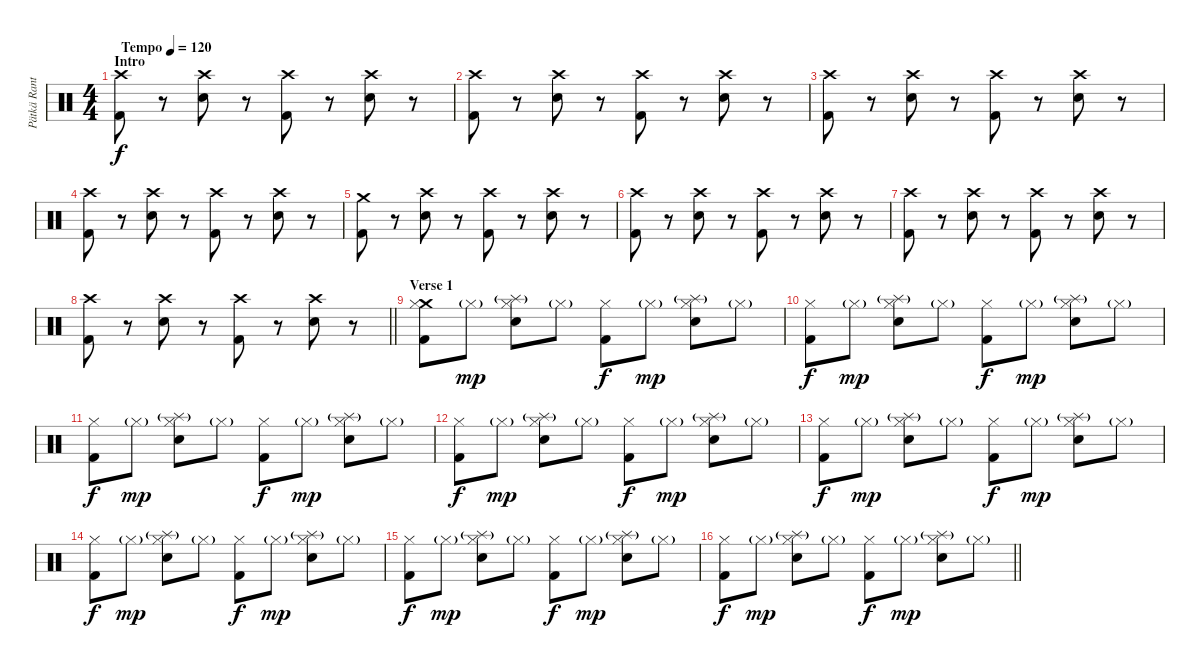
\track ("Pätkä Rantala (Drums)" "Pätkä Rant") {instrument percussion}
\staff {score}
\articulation defaults
\ts (4 4)
\section ("" "Intro")
\tempo (120 "Tempo")
\clef neutral
\ks c
("Crash high (hit)" "Kick (hit) 2").8{dy f} r.8 ("Crash high (hit)" "Snare (hit) 2").8 r.8 ("Crash high (hit)" "Kick (hit) 2").8 r.8 ("Crash high (hit)" "Snare (hit) 2").8 r.8 |
("Crash high (hit)" "Kick (hit) 2").8 r.8 ("Crash high (hit)" "Snare (hit) 2").8 r.8 ("Crash high (hit)" "Kick (hit) 2").8 r.8 ("Crash high (hit)" "Snare (hit) 2").8 r.8 |
("Crash high (hit)" "Kick (hit) 2").8 r.8 ("Crash high (hit)" "Snare (hit) 2").8 r.8 ("Crash high (hit)" "Kick (hit) 2").8 r.8 ("Crash high (hit)" "Snare (hit) 2").8 r.8 |
("Crash high (hit)" "Kick (hit) 2").8 r.8 ("Crash high (hit)" "Snare (hit) 2").8 r.8 ("Crash high (hit)" "Kick (hit) 2").8 r.8 ("Crash high (hit)" "Snare (hit) 2").8 r.8 |
("Crash medium (hit)" "Kick (hit) 2").8 r.8 ("Crash high (hit)" "Snare (hit) 2").8 r.8 ("Crash high (hit)" "Kick (hit) 2").8 r.8 ("Crash high (hit)" "Snare (hit) 2").8 r.8 |
("Crash high (hit)" "Kick (hit) 2").8 r.8 ("Crash high (hit)" "Snare (hit) 2").8 r.8 ("Crash high (hit)" "Kick (hit) 2").8 r.8 ("Crash high (hit)" "Snare (hit) 2").8 r.8 |
("Crash high (hit)" "Kick (hit) 2").8 r.8 ("Crash high (hit)" "Snare (hit) 2").8 r.8 ("Crash high (hit)" "Kick (hit) 2").8 r.8 ("Crash high (hit)" "Snare (hit) 2").8 r.8 |
\barLineRight lightlight
("Crash high (hit)" "Kick (hit) 2").8 r.8 ("Crash high (hit)" "Snare (hit) 2").8 r.8 ("Crash high (hit)" "Kick (hit) 2").8 r.8 ("Crash high (hit)" "Snare (hit) 2").8 r.8 |
\section ("" "Verse 1")
("Crash medium (hit)" "Hi-Hat (closed)" "Kick (hit) 2").8 "Hi-Hat (closed)"{g}.8{dy mp} ("Splash (hit)"{g} "Hi-Hat (closed)" "Snare (hit) 2").8 "Hi-Hat (closed)"{g}.8 ("Hi-Hat (closed)" "Kick (hit) 2").8{dy f} "Hi-Hat (closed)"{g}.8{dy mp} ("Splash (hit)"{g} "Hi-Hat (closed)" "Snare (hit) 2").8 "Hi-Hat (closed)"{g}.8 |
("Hi-Hat (closed)" "Kick (hit) 2").8{dy f} "Hi-Hat (closed)"{g}.8{dy mp} ("Splash (hit)"{g} "Hi-Hat (closed)" "Snare (hit) 2").8 "Hi-Hat (closed)"{g}.8 ("Hi-Hat (closed)" "Kick (hit) 2").8{dy f} "Hi-Hat (closed)"{g}.8{dy mp} ("Splash (hit)"{g} "Hi-Hat (closed)" "Snare (hit) 2").8 "Hi-Hat (closed)"{g}.8 |
("Hi-Hat (closed)" "Kick (hit) 2").8{dy f} "Hi-Hat (closed)"{g}.8{dy mp} ("Splash (hit)"{g} "Hi-Hat (closed)" "Snare (hit) 2").8 "Hi-Hat (closed)"{g}.8 ("Hi-Hat (closed)" "Kick (hit) 2").8{dy f} "Hi-Hat (closed)"{g}.8{dy mp} ("Splash (hit)"{g} "Hi-Hat (closed)" "Snare (hit) 2").8 "Hi-Hat (closed)"{g}.8 |
("Hi-Hat (closed)" "Kick (hit) 2").8{dy f} "Hi-Hat (closed)"{g}.8{dy mp} ("Splash (hit)"{g} "Hi-Hat (closed)" "Snare (hit) 2").8 "Hi-Hat (closed)"{g}.8 ("Hi-Hat (closed)" "Kick (hit) 2").8{dy f} "Hi-Hat (closed)"{g}.8{dy mp} ("Splash (hit)"{g} "Hi-Hat (closed)" "Snare (hit) 2").8 "Hi-Hat (closed)"{g}.8 |
("Hi-Hat (closed)" "Kick (hit) 2").8{dy f} "Hi-Hat (closed)"{g}.8{dy mp} ("Splash (hit)"{g} "Hi-Hat (closed)" "Snare (hit) 2").8 "Hi-Hat (closed)"{g}.8 ("Hi-Hat (closed)" "Kick (hit) 2").8{dy f} "Hi-Hat (closed)"{g}.8{dy mp} ("Splash (hit)"{g} "Hi-Hat (closed)" "Snare (hit) 2").8 "Hi-Hat (closed)"{g}.8 |
("Hi-Hat (closed)" "Kick (hit) 2").8{dy f} "Hi-Hat (closed)"{g}.8{dy mp} ("Splash (hit)"{g} "Hi-Hat (closed)" "Snare (hit) 2").8 "Hi-Hat (closed)"{g}.8 ("Hi-Hat (closed)" "Kick (hit) 2").8{dy f} "Hi-Hat (closed)"{g}.8{dy mp} ("Splash (hit)"{g} "Hi-Hat (closed)" "Snare (hit) 2").8 "Hi-Hat (closed)"{g}.8 |
("Hi-Hat (closed)" "Kick (hit) 2").8{dy f} "Hi-Hat (closed)"{g}.8{dy mp} ("Splash (hit)"{g} "Hi-Hat (closed)" "Snare (hit) 2").8 "Hi-Hat (closed)"{g}.8 ("Hi-Hat (closed)" "Kick (hit) 2").8{dy f} "Hi-Hat (closed)"{g}.8{dy mp} ("Splash (hit)"{g} "Hi-Hat (closed)" "Snare (hit) 2").8 "Hi-Hat (closed)"{g}.8 |
\barLineRight lightlight
("Hi-Hat (closed)" "Kick (hit) 2").8{dy f} "Hi-Hat (closed)"{g}.8{dy mp} ("Splash (hit)"{g} "Hi-Hat (closed)" "Snare (hit) 2").8 "Hi-Hat (closed)"{g}.8 ("Hi-Hat (closed)" "Kick (hit) 2").8{dy f} "Hi-Hat (closed)"{g}.8{dy mp} ("Splash (hit)"{g} "Hi-Hat (closed)" "Snare (hit) 2").8 "Hi-Hat (closed)"{g}.8
